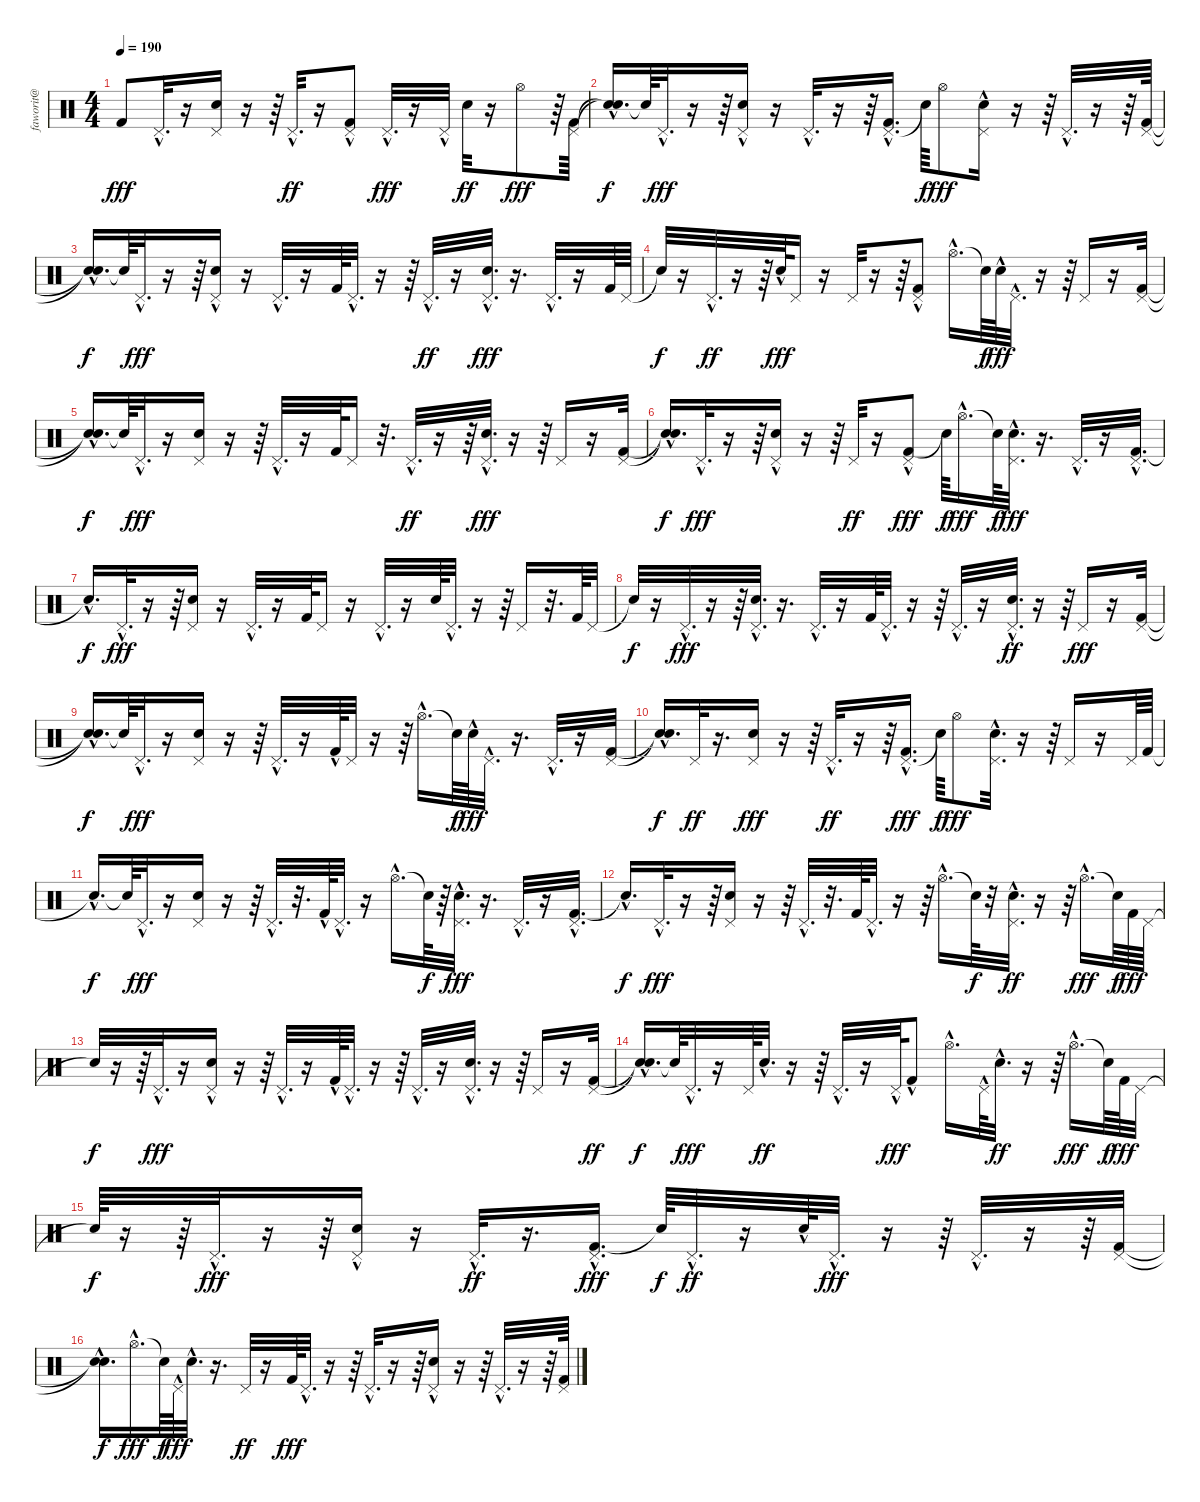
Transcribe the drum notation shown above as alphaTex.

\track ("faworit@" "faworit@") {instrument percussion}
\staff {score}
\articulation defaults
\ts (4 4)
\tempo 190
\clef neutral
\ks c "Kick (hit) 2".8{dy fff} "Pedal Hi-Hat (hit)"{hac}.32{d}
r.16 ("Snare (hit) 2" "Pedal Hi-Hat (hit)").16 r.16 r.64 "Pedal Hi-Hat (hit)"{hac}.32{d dy ff} r.16 ("Kick (hit) 2" "Pedal Hi-Hat (hit)"{hac}).8 "Pedal Hi-Hat (hit)"{hac}.32{d dy fff} r.16 "Pedal Hi-Hat (hit)"{hac}.32 "Snare (hit) 2".32{dy ff} r.16 "Hi-Hat (open)".8{dy fff} r.64 ("Pedal Hi-Hat (hit)" "Kick (hit) 2").64 |
("Snare (hit)"{t} "Snare (hit)"{hac t}).16{d dy f} "Snare (hit)"{t}.64 "Pedal Hi-Hat (hit)"{hac}.32{d dy fff} r.16 r.64 ("Pedal Hi-Hat (hit)"{hac} "Snare (hit) 2").16 r.16 "Pedal Hi-Hat (hit)"{hac}.32{d} r.16 r.64 ("Pedal Hi-Hat (hit)"{hac} "Kick (hit) 2"{hac}).16{d} "Snare (hit)"{t}.64{dy f} "Hi-Hat (open)".8{dy fff} ("Pedal Hi-Hat (hit)"{hac} "Snare (hit) 2").16 r.16 r.64 "Pedal Hi-Hat (hit)"{hac}.32{d} r.16 r.64 ("Pedal Hi-Hat (hit)" "Kick (hit) 2").64 |
("Snare (hit)"{t} "Snare (hit)"{hac t}).16{d dy f} "Snare (hit)"{t}.64 "Pedal Hi-Hat (hit)"{hac}.32{d dy fff} r.16 r.64 ("Pedal Hi-Hat (hit)" "Snare (hit) 2"{hac}).16 r.16 "Pedal Hi-Hat (hit)"{hac}.32{d} r.16 "Kick (hit) 2".64 "Pedal Hi-Hat (hit)"{hac}.32{d} r.16 r.64 "Pedal Hi-Hat (hit)"{hac}.32{d dy ff} r.16 ("Snare (hit) 2"{hac} "Pedal Hi-Hat (hit)"{hac}).32{d dy fff} r.16{d} "Pedal Hi-Hat (hit)"{hac}.32{d} r.16 "Kick (hit) 2".64 "Pedal Hi-Hat (hit)".64 |
"Snare (hit)"{t}.32{dy f} r.16 "Pedal Hi-Hat (hit)"{hac}.32{d dy ff} r.16 r.64 "Snare (hit) 2"{hac}.64{dy fff} "Pedal Hi-Hat (hit)".16 r.16 "Pedal Hi-Hat (hit)".32 r.16 r.64 ("Kick (hit) 2"{hac} "Pedal Hi-Hat (hit)"{hac}).8 "Hi-Hat (open)"{hac}.16{d} "Snare (hit)"{t}.64{dy f} "Snare (hit) 2"{hac}.64{dy fff} "Pedal Hi-Hat (hit)"{hac}.32{d} r.16 r.64 "Pedal Hi-Hat (hit)".16 r.16 ("Kick (hit) 2" "Pedal Hi-Hat (hit)").32 |
("Snare (hit)"{hac t} "Snare (hit)"{t}).16{d dy f} "Snare (hit)"{t}.64 "Pedal Hi-Hat (hit)"{hac}.32{d dy fff} r.16 ("Snare (hit) 2" "Pedal Hi-Hat (hit)").16 r.16 r.64 "Pedal Hi-Hat (hit)"{hac}.32{d} r.16 "Kick (hit) 2".64 "Pedal Hi-Hat (hit)".16 r.32{d} "Pedal Hi-Hat (hit)"{hac}.32{d dy ff} r.16 r.64 ("Snare (hit) 2"{hac} "Pedal Hi-Hat (hit)"{hac}).32{d dy fff} r.16 r.64 "Pedal Hi-Hat (hit)".16 r.16 ("Kick (hit) 2" "Pedal Hi-Hat (hit)").32 |
("Snare (hit)"{hac t} "Snare (hit)"{t}).16{d dy f} "Pedal Hi-Hat (hit)"{hac}.32{d dy fff} r.16 r.64 ("Pedal Hi-Hat (hit)" "Snare (hit) 2"{hac}).16 r.16 r.64 "Pedal Hi-Hat (hit)".32{dy ff} r.16 ("Kick (hit) 2" "Pedal Hi-Hat (hit)"{hac}).8{dy fff} "Snare (hit)"{t}.64{dy f} "Hi-Hat (open)"{hac}.16{d dy fff} "Snare (hit)"{t}.64{dy f} ("Snare (hit) 2"{hac} "Pedal Hi-Hat (hit)"{hac}).32{d dy fff} r.16{d} "Pedal Hi-Hat (hit)"{hac}.32{d} r.16 ("Kick (hit) 2"{hac} "Pedal Hi-Hat (hit)"{hac}).32{d} |
"Snare (hit)"{hac t}.16{d dy f} "Pedal Hi-Hat (hit)"{hac}.32{d dy fff} r.16 r.64 ("Snare (hit) 2" "Pedal Hi-Hat (hit)").16 r.16 "Pedal Hi-Hat (hit)"{hac}.32{d} r.16 "Kick (hit) 2".64 "Pedal Hi-Hat (hit)".16 r.16 "Pedal Hi-Hat (hit)"{hac}.32{d} r.16 "Snare (hit) 2".64 "Pedal Hi-Hat (hit)"{hac}.32{d} r.16 r.64 "Pedal Hi-Hat (hit)".16 r.32{d} "Kick (hit) 2".64 "Pedal Hi-Hat (hit)".32 |
"Snare (hit)"{t}.32{dy f} r.16 "Pedal Hi-Hat (hit)"{hac}.32{d dy fff} r.16 r.64 ("Snare (hit) 2"{hac} "Pedal Hi-Hat (hit)"{hac}).32{d} r.16{d} "Pedal Hi-Hat (hit)"{hac}.32{d} r.16 "Kick (hit) 2".64 "Pedal Hi-Hat (hit)"{hac}.32{d} r.16 r.64 "Pedal Hi-Hat (hit)"{hac}.32{d} r.16 ("Pedal Hi-Hat (hit)"{hac} "Snare (hit) 2").32{d dy ff} r.16 r.64 "Pedal Hi-Hat (hit)".16{dy fff} r.16 ("Kick (hit) 2" "Pedal Hi-Hat (hit)").32 |
("Snare (hit)"{hac t} "Snare (hit)"{t}).16{d dy f} "Snare (hit)"{t}.64 "Pedal Hi-Hat (hit)"{hac}.32{d dy fff} r.16 ("Snare (hit) 2" "Pedal Hi-Hat (hit)").16 r.16 r.64 "Pedal Hi-Hat (hit)"{hac}.32{d} r.16 "Kick (hit) 2"{hac}.64 "Pedal Hi-Hat (hit)".32 r.16 r.64 "Hi-Hat (open)"{hac}.16{d} "Snare (hit)"{t}.64{dy f} "Snare (hit) 2"{hac}.64{dy fff} "Pedal Hi-Hat (hit)"{hac}.32{d} r.16{d} "Pedal Hi-Hat (hit)"{hac}.32{d} r.16 ("Kick (hit) 2" "Pedal Hi-Hat (hit)").32 |
("Snare (hit)"{hac t} "Snare (hit)"{t}).16{d dy f} "Pedal Hi-Hat (hit)".32{dy ff} r.16{d} ("Snare (hit) 2" "Pedal Hi-Hat (hit)").16{dy fff} r.16 r.64 "Pedal Hi-Hat (hit)"{hac}.32{d dy ff} r.16 r.64 ("Pedal Hi-Hat (hit)"{hac} "Kick (hit) 2"{hac}).16{d dy fff} "Snare (hit)"{t}.64{dy f} "Hi-Hat (open)".8{dy fff} ("Pedal Hi-Hat (hit)"{hac} "Snare (hit) 2"{hac}).32{d} r.16 r.64 "Pedal Hi-Hat (hit)".16 r.16 "Pedal Hi-Hat (hit)".64 "Kick (hit) 2".64 |
"Snare (hit)"{hac t}.16{d dy f} "Snare (hit)"{t}.64 "Pedal Hi-Hat (hit)"{hac}.32{d dy fff} r.16 ("Snare (hit) 2" "Pedal Hi-Hat (hit)").16 r.16 r.64 "Pedal Hi-Hat (hit)"{hac}.32{d} r.32{d} "Kick (hit) 2"{hac}.64 "Pedal Hi-Hat (hit)"{hac}.32{d} r.16 "Hi-Hat (open)"{hac}.16{d} "Snare (hit)"{t}.64{dy f} r.64 ("Snare (hit) 2"{hac} "Pedal Hi-Hat (hit)"{hac}).32{d dy fff} r.16{d} "Pedal Hi-Hat (hit)"{hac}.32{d} r.16 ("Kick (hit) 2"{hac} "Pedal Hi-Hat (hit)"{hac}).32{d} |
"Snare (hit)"{hac t}.16{d dy f} "Pedal Hi-Hat (hit)"{hac}.32{d dy fff} r.16 r.64 ("Snare (hit) 2" "Pedal Hi-Hat (hit)").16 r.16 r.64 "Pedal Hi-Hat (hit)"{hac}.32{d} r.32{d} "Kick (hit) 2".64 "Pedal Hi-Hat (hit)"{hac}.32{d} r.16 r.64 "Hi-Hat (open)"{hac}.16{d} "Snare (hit)"{t}.64{dy f} r.32 ("Pedal Hi-Hat (hit)"{hac} "Snare (hit) 2").32{d dy ff} r.16 r.64 "Hi-Hat (open)"{hac}.16{d dy fff} "Snare (hit)"{t}.64{dy f} "Kick (hit) 2".64{dy fff} "Pedal Hi-Hat (hit)".64 |
"Snare (hit)"{t}.32{dy f} r.16 r.64 "Pedal Hi-Hat (hit)"{hac}.32{d dy fff} r.16 ("Snare (hit) 2"{hac} "Pedal Hi-Hat (hit)").16 r.16 r.64 "Pedal Hi-Hat (hit)"{hac}.32{d} r.16 "Kick (hit) 2"{hac}.64 "Pedal Hi-Hat (hit)"{hac}.32{d} r.16 r.64 "Pedal Hi-Hat (hit)"{hac}.32{d} r.16 ("Snare (hit) 2"{hac} "Pedal Hi-Hat (hit)"{hac}).32{d} r.16 r.64 "Pedal Hi-Hat (hit)".16 r.16 ("Kick (hit) 2" "Pedal Hi-Hat (hit)").32{dy ff} |
("Snare (hit)"{hac t} "Snare (hit)"{t}).16{d dy f} "Snare (hit)"{t}.64 "Pedal Hi-Hat (hit)"{hac}.32{d dy fff} r.16 "Pedal Hi-Hat (hit)".64 "Snare (hit) 2"{hac}.32{d dy ff} r.16 r.64 "Pedal Hi-Hat (hit)"{hac}.32{d} r.16 "Pedal Hi-Hat (hit)"{hac}.64{dy fff} "Kick (hit) 2"{hac}.8 "Hi-Hat (open)"{hac}.16{d} "Pedal Hi-Hat (hit)"{hac}.64 "Snare (hit) 2"{hac}.32{d dy ff} r.16 r.64 "Hi-Hat (open)"{hac}.16{d dy fff} "Snare (hit)"{t}.64{dy f} "Kick (hit) 2".64{dy fff} "Pedal Hi-Hat (hit)".32 |
"Snare (hit)"{t}.64{dy f} r.16 r.64 "Pedal Hi-Hat (hit)"{hac}.32{d dy fff} r.16 r.64 ("Pedal Hi-Hat (hit)" "Snare (hit) 2"{hac}).16 r.16 "Pedal Hi-Hat (hit)"{hac}.32{d dy ff} r.16{d} ("Kick (hit) 2"{hac} "Pedal Hi-Hat (hit)"{hac}).16{d dy fff} "Snare (hit)"{t}.64{dy f} "Pedal Hi-Hat (hit)"{hac}.32{d dy ff} r.16 "Snare (hit) 2"{hac}.64 "Pedal Hi-Hat (hit)"{hac}.32{d dy fff} r.16 r.64 "Pedal Hi-Hat (hit)"{hac}.32{d} r.16 r.64 ("Pedal Hi-Hat (hit)" "Kick (hit) 2").32 |
("Snare (hit)"{t} "Snare (hit)"{hac t}).16{d dy f} "Hi-Hat (open)"{hac}.16{d dy fff} "Snare (hit)"{t}.64{dy f} "Pedal Hi-Hat (hit)"{hac}.64{dy fff} "Snare (hit) 2"{hac}.32{d} r.16{d} "Pedal Hi-Hat (hit)".32{dy ff} r.16 "Kick (hit) 2".64{dy fff} "Pedal Hi-Hat (hit)"{hac}.32{d} r.16 r.64 "Pedal Hi-Hat (hit)"{hac}.32{d} r.16 r.64 ("Snare (hit) 2" "Pedal Hi-Hat (hit)"{hac}).16 r.16 r.64 "Pedal Hi-Hat (hit)"{hac}.32{d} r.16 r.64 ("Kick (hit) 2" "Pedal Hi-Hat (hit)").64
